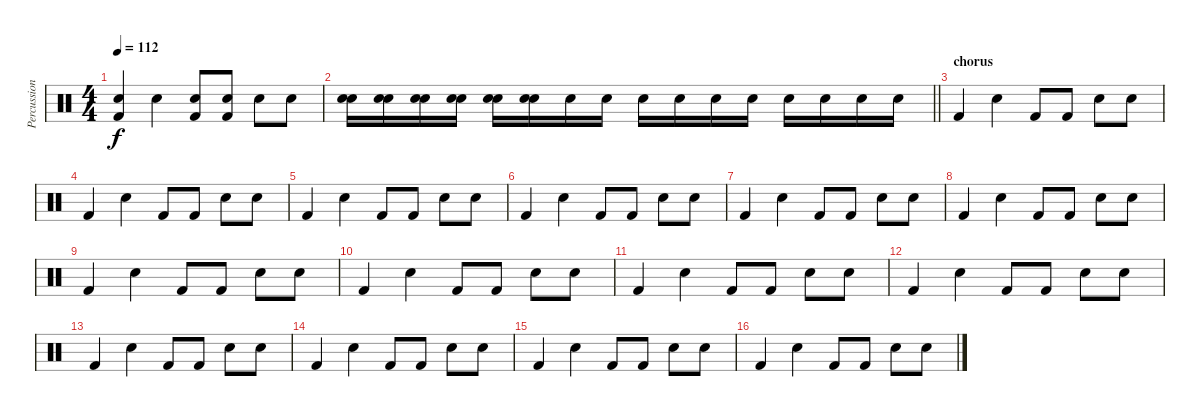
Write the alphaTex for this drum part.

\track ("Percussions" "Percussion") {instrument percussion}
\staff {score}
\articulation defaults
\ts (4 4)
\tempo 112
\clef neutral
\ks c
("Snare (hit)" "Kick (hit) 2").4{dy f} "Electric Snare (hit)".4 ("Snare (hit)" "Kick (hit) 2").8 ("Snare (hit)" "Kick (hit) 2").8 "Electric Snare (hit)".8 "Electric Snare (hit)".8 |
\barLineRight lightlight
("Snare (hit)" "Electric Snare (hit)").16 ("Electric Snare (hit)" "Electric Snare (hit)").16 ("Snare (hit)" "Electric Snare (hit)").16 ("Snare (hit)" "Electric Snare (hit)").16 ("Electric Snare (hit)" "Electric Snare (hit)").16 ("Electric Snare (hit)" "Electric Snare (hit)").16 "Electric Snare (hit)".16 "Electric Snare (hit)".16 "Electric Snare (hit)".16 "Electric Snare (hit)".16 "Electric Snare (hit)".16 "Electric Snare (hit)".16 "Electric Snare (hit)".16 "Electric Snare (hit)".16 "Electric Snare (hit)".16 "Electric Snare (hit)".16 |
\section ("" "chorus")
"Kick (hit) 2".4 "Electric Snare (hit)".4 "Kick (hit) 2".8 "Kick (hit) 2".8 "Electric Snare (hit)".8 "Electric Snare (hit)".8 |
"Kick (hit) 2".4 "Electric Snare (hit)".4 "Kick (hit) 2".8 "Kick (hit) 2".8 "Electric Snare (hit)".8 "Electric Snare (hit)".8 |
"Kick (hit) 2".4 "Electric Snare (hit)".4 "Kick (hit) 2".8 "Kick (hit) 2".8 "Electric Snare (hit)".8 "Electric Snare (hit)".8 |
"Kick (hit) 2".4 "Electric Snare (hit)".4 "Kick (hit) 2".8 "Kick (hit) 2".8 "Electric Snare (hit)".8 "Electric Snare (hit)".8 |
"Kick (hit) 2".4 "Electric Snare (hit)".4 "Kick (hit) 2".8 "Kick (hit) 2".8 "Electric Snare (hit)".8 "Electric Snare (hit)".8 |
"Kick (hit) 2".4 "Electric Snare (hit)".4 "Kick (hit) 2".8 "Kick (hit) 2".8 "Electric Snare (hit)".8 "Electric Snare (hit)".8 |
"Kick (hit) 2".4 "Electric Snare (hit)".4 "Kick (hit) 2".8 "Kick (hit) 2".8 "Electric Snare (hit)".8 "Electric Snare (hit)".8 |
"Kick (hit) 2".4 "Electric Snare (hit)".4 "Kick (hit) 2".8 "Kick (hit) 2".8 "Electric Snare (hit)".8 "Electric Snare (hit)".8 |
"Kick (hit) 2".4 "Electric Snare (hit)".4 "Kick (hit) 2".8 "Kick (hit) 2".8 "Electric Snare (hit)".8 "Electric Snare (hit)".8 |
"Kick (hit) 2".4 "Electric Snare (hit)".4 "Kick (hit) 2".8 "Kick (hit) 2".8 "Electric Snare (hit)".8 "Electric Snare (hit)".8 |
"Kick (hit) 2".4 "Electric Snare (hit)".4 "Kick (hit) 2".8 "Kick (hit) 2".8 "Electric Snare (hit)".8 "Electric Snare (hit)".8 |
"Kick (hit) 2".4 "Electric Snare (hit)".4 "Kick (hit) 2".8 "Kick (hit) 2".8 "Electric Snare (hit)".8 "Electric Snare (hit)".8 |
"Kick (hit) 2".4 "Electric Snare (hit)".4 "Kick (hit) 2".8 "Kick (hit) 2".8 "Electric Snare (hit)".8 "Electric Snare (hit)".8 |
"Kick (hit) 2".4 "Electric Snare (hit)".4 "Kick (hit) 2".8 "Kick (hit) 2".8 "Electric Snare (hit)".8 "Electric Snare (hit)".8
